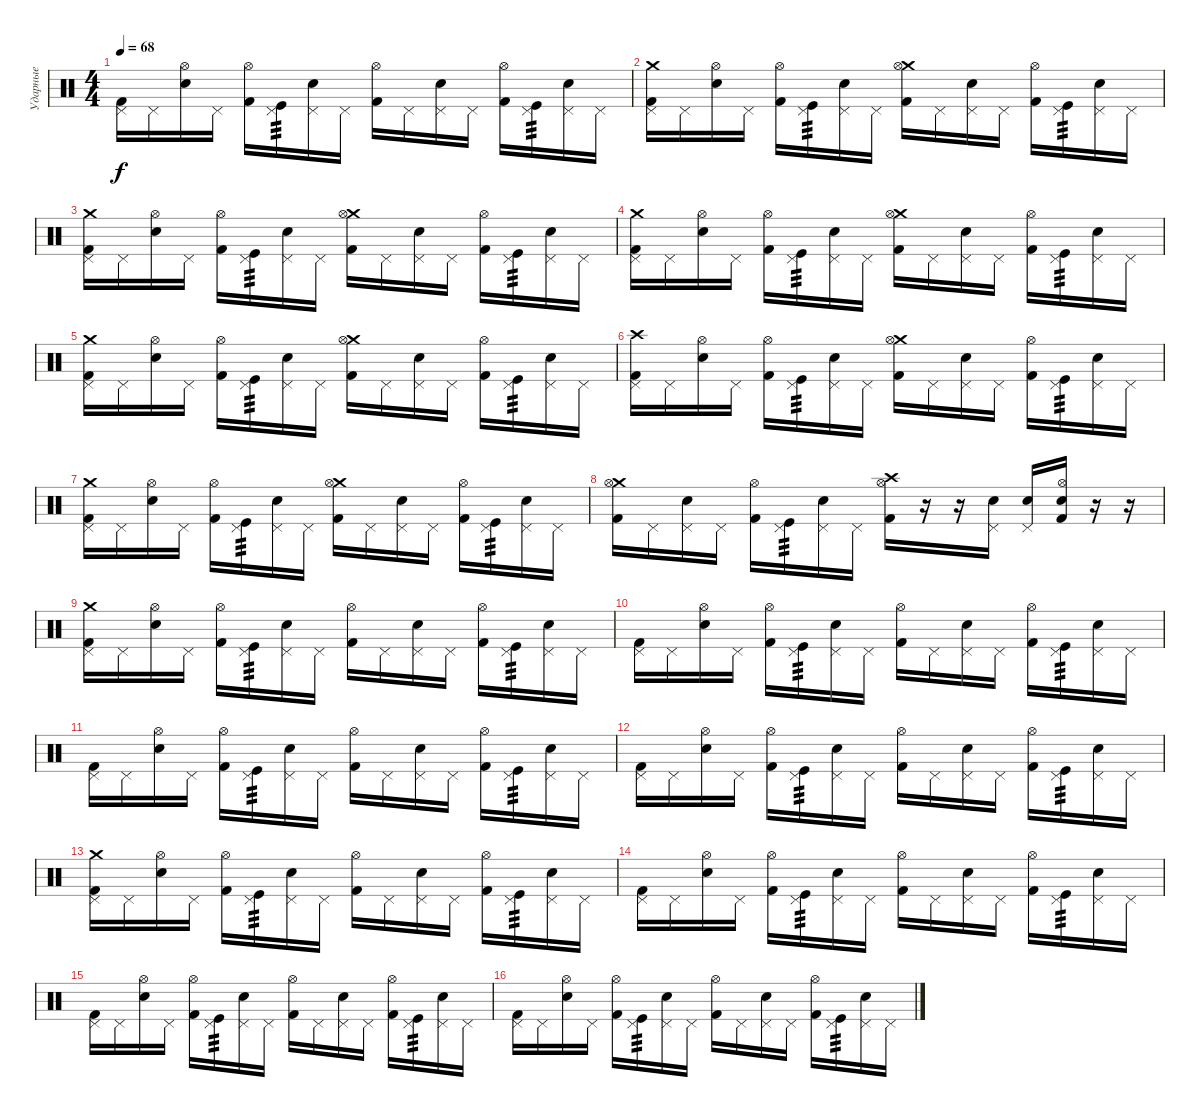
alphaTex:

\track ("Ударные" "Ударные") {instrument percussion}
\staff {score}
\articulation defaults
\ts (4 4)
\tempo 68
\clef neutral
\ks c
("Pedal Hi-Hat (hit)" "Kick (hit) 2").16{dy f} "Pedal Hi-Hat (hit)".16 ("Hi-Hat (open)" "Snare (hit) 2").16 "Pedal Hi-Hat (hit)".16 ("Hi-Hat (open)" "Kick (hit) 2").16 ("Pedal Hi-Hat (hit)" "Kick (hit)").16{tp 3} ("Pedal Hi-Hat (hit)" "Snare (hit) 2").16 "Pedal Hi-Hat (hit)".16 ("Hi-Hat (open)" "Kick (hit) 2").16 "Pedal Hi-Hat (hit)".16 ("Pedal Hi-Hat (hit)" "Snare (hit) 2").16 "Pedal Hi-Hat (hit)".16 ("Hi-Hat (open)" "Kick (hit) 2").16 ("Pedal Hi-Hat (hit)" "Kick (hit)").16{tp 3} ("Pedal Hi-Hat (hit)" "Snare (hit) 2").16 "Pedal Hi-Hat (hit)".16 |
("Crash medium (hit)" "Pedal Hi-Hat (hit)" "Kick (hit) 2").16 "Pedal Hi-Hat (hit)".16 ("Hi-Hat (open)" "Snare (hit) 2").16 "Pedal Hi-Hat (hit)".16 ("Hi-Hat (open)" "Kick (hit) 2").16 ("Pedal Hi-Hat (hit)" "Kick (hit)").16{tp 3} ("Pedal Hi-Hat (hit)" "Snare (hit) 2").16 "Pedal Hi-Hat (hit)".16 ("Crash medium (hit)" "Hi-Hat (open)" "Kick (hit) 2").16 "Pedal Hi-Hat (hit)".16 ("Pedal Hi-Hat (hit)" "Snare (hit) 2").16 "Pedal Hi-Hat (hit)".16 ("Hi-Hat (open)" "Kick (hit) 2").16 ("Pedal Hi-Hat (hit)" "Kick (hit)").16{tp 3} ("Pedal Hi-Hat (hit)" "Snare (hit) 2").16 "Pedal Hi-Hat (hit)".16 |
("Crash medium (hit)" "Pedal Hi-Hat (hit)" "Kick (hit) 2").16 "Pedal Hi-Hat (hit)".16 ("Hi-Hat (open)" "Snare (hit) 2").16 "Pedal Hi-Hat (hit)".16 ("Hi-Hat (open)" "Kick (hit) 2").16 ("Pedal Hi-Hat (hit)" "Kick (hit)").16{tp 3} ("Pedal Hi-Hat (hit)" "Snare (hit) 2").16 "Pedal Hi-Hat (hit)".16 ("Crash medium (hit)" "Hi-Hat (open)" "Kick (hit) 2").16 "Pedal Hi-Hat (hit)".16 ("Pedal Hi-Hat (hit)" "Snare (hit) 2").16 "Pedal Hi-Hat (hit)".16 ("Hi-Hat (open)" "Kick (hit) 2").16 ("Pedal Hi-Hat (hit)" "Kick (hit)").16{tp 3} ("Pedal Hi-Hat (hit)" "Snare (hit) 2").16 "Pedal Hi-Hat (hit)".16 |
("Crash medium (hit)" "Pedal Hi-Hat (hit)" "Kick (hit) 2").16 "Pedal Hi-Hat (hit)".16 ("Hi-Hat (open)" "Snare (hit) 2").16 "Pedal Hi-Hat (hit)".16 ("Hi-Hat (open)" "Kick (hit) 2").16 ("Pedal Hi-Hat (hit)" "Kick (hit)").16{tp 3} ("Pedal Hi-Hat (hit)" "Snare (hit) 2").16 "Pedal Hi-Hat (hit)".16 ("Crash medium (hit)" "Hi-Hat (open)" "Kick (hit) 2").16 "Pedal Hi-Hat (hit)".16 ("Pedal Hi-Hat (hit)" "Snare (hit) 2").16 "Pedal Hi-Hat (hit)".16 ("Hi-Hat (open)" "Kick (hit) 2").16 ("Pedal Hi-Hat (hit)" "Kick (hit)").16{tp 3} ("Pedal Hi-Hat (hit)" "Snare (hit) 2").16 "Pedal Hi-Hat (hit)".16 |
("Crash medium (hit)" "Pedal Hi-Hat (hit)" "Kick (hit) 2").16 "Pedal Hi-Hat (hit)".16 ("Hi-Hat (open)" "Snare (hit) 2").16 "Pedal Hi-Hat (hit)".16 ("Hi-Hat (open)" "Kick (hit) 2").16 ("Pedal Hi-Hat (hit)" "Kick (hit)").16{tp 3} ("Pedal Hi-Hat (hit)" "Snare (hit) 2").16 "Pedal Hi-Hat (hit)".16 ("Crash medium (hit)" "Hi-Hat (open)" "Kick (hit) 2").16 "Pedal Hi-Hat (hit)".16 ("Pedal Hi-Hat (hit)" "Snare (hit) 2").16 "Pedal Hi-Hat (hit)".16 ("Hi-Hat (open)" "Kick (hit) 2").16 ("Pedal Hi-Hat (hit)" "Kick (hit)").16{tp 3} ("Pedal Hi-Hat (hit)" "Snare (hit) 2").16 "Pedal Hi-Hat (hit)".16 |
("Crash high (hit)" "Pedal Hi-Hat (hit)" "Kick (hit) 2").16 "Pedal Hi-Hat (hit)".16 ("Hi-Hat (open)" "Snare (hit) 2").16 "Pedal Hi-Hat (hit)".16 ("Hi-Hat (open)" "Kick (hit) 2").16 ("Pedal Hi-Hat (hit)" "Kick (hit)").16{tp 3} ("Pedal Hi-Hat (hit)" "Snare (hit) 2").16 "Pedal Hi-Hat (hit)".16 ("Crash medium (hit)" "Hi-Hat (open)" "Kick (hit) 2").16 "Pedal Hi-Hat (hit)".16 ("Pedal Hi-Hat (hit)" "Snare (hit) 2").16 "Pedal Hi-Hat (hit)".16 ("Hi-Hat (open)" "Kick (hit) 2").16 ("Pedal Hi-Hat (hit)" "Kick (hit)").16{tp 3} ("Pedal Hi-Hat (hit)" "Snare (hit) 2").16 "Pedal Hi-Hat (hit)".16 |
("Crash medium (hit)" "Pedal Hi-Hat (hit)" "Kick (hit) 2").16 "Pedal Hi-Hat (hit)".16 ("Hi-Hat (open)" "Snare (hit) 2").16 "Pedal Hi-Hat (hit)".16 ("Hi-Hat (open)" "Kick (hit) 2").16 ("Pedal Hi-Hat (hit)" "Kick (hit)").16{tp 3} ("Pedal Hi-Hat (hit)" "Snare (hit) 2").16 "Pedal Hi-Hat (hit)".16 ("Crash medium (hit)" "Hi-Hat (open)" "Kick (hit) 2").16 "Pedal Hi-Hat (hit)".16 ("Pedal Hi-Hat (hit)" "Snare (hit) 2").16 "Pedal Hi-Hat (hit)".16 ("Hi-Hat (open)" "Kick (hit) 2").16 ("Pedal Hi-Hat (hit)" "Kick (hit)").16{tp 3} ("Pedal Hi-Hat (hit)" "Snare (hit) 2").16 "Pedal Hi-Hat (hit)".16 |
("Crash medium (hit)" "Hi-Hat (open)" "Kick (hit) 2").16 "Pedal Hi-Hat (hit)".16 ("Pedal Hi-Hat (hit)" "Snare (hit) 2").16 "Pedal Hi-Hat (hit)".16 ("Hi-Hat (open)" "Kick (hit) 2").16 ("Pedal Hi-Hat (hit)" "Kick (hit)").16{tp 3} ("Pedal Hi-Hat (hit)" "Snare (hit) 2").16 "Pedal Hi-Hat (hit)".16 ("Crash high (hit)" "Hi-Hat (open)" "Kick (hit) 2").16 r.16 r.16 ("Pedal Hi-Hat (hit)" "Snare (hit) 2").16 ("Pedal Hi-Hat (hit)" "Snare (hit) 2").16 ("Hi-Hat (open)" "Snare (hit) 2" "Kick (hit) 2").16 r.16 r.16 |
("Crash medium (hit)" "Pedal Hi-Hat (hit)" "Kick (hit) 2").16 "Pedal Hi-Hat (hit)".16 ("Hi-Hat (open)" "Snare (hit) 2").16 "Pedal Hi-Hat (hit)".16 ("Hi-Hat (open)" "Kick (hit) 2").16 ("Pedal Hi-Hat (hit)" "Kick (hit)").16{tp 3} ("Pedal Hi-Hat (hit)" "Snare (hit) 2").16 "Pedal Hi-Hat (hit)".16 ("Hi-Hat (open)" "Kick (hit) 2").16 "Pedal Hi-Hat (hit)".16 ("Pedal Hi-Hat (hit)" "Snare (hit) 2").16 "Pedal Hi-Hat (hit)".16 ("Hi-Hat (open)" "Kick (hit) 2").16 ("Pedal Hi-Hat (hit)" "Kick (hit)").16{tp 3} ("Pedal Hi-Hat (hit)" "Snare (hit) 2").16 "Pedal Hi-Hat (hit)".16 |
("Pedal Hi-Hat (hit)" "Kick (hit) 2").16 "Pedal Hi-Hat (hit)".16 ("Hi-Hat (open)" "Snare (hit) 2").16 "Pedal Hi-Hat (hit)".16 ("Hi-Hat (open)" "Kick (hit) 2").16 ("Pedal Hi-Hat (hit)" "Kick (hit)").16{tp 3} ("Pedal Hi-Hat (hit)" "Snare (hit) 2").16 "Pedal Hi-Hat (hit)".16 ("Hi-Hat (open)" "Kick (hit) 2").16 "Pedal Hi-Hat (hit)".16 ("Pedal Hi-Hat (hit)" "Snare (hit) 2").16 "Pedal Hi-Hat (hit)".16 ("Hi-Hat (open)" "Kick (hit) 2").16 ("Pedal Hi-Hat (hit)" "Kick (hit)").16{tp 3} ("Pedal Hi-Hat (hit)" "Snare (hit) 2").16 "Pedal Hi-Hat (hit)".16 |
("Pedal Hi-Hat (hit)" "Kick (hit) 2").16 "Pedal Hi-Hat (hit)".16 ("Hi-Hat (open)" "Snare (hit) 2").16 "Pedal Hi-Hat (hit)".16 ("Hi-Hat (open)" "Kick (hit) 2").16 ("Pedal Hi-Hat (hit)" "Kick (hit)").16{tp 3} ("Pedal Hi-Hat (hit)" "Snare (hit) 2").16 "Pedal Hi-Hat (hit)".16 ("Hi-Hat (open)" "Kick (hit) 2").16 "Pedal Hi-Hat (hit)".16 ("Pedal Hi-Hat (hit)" "Snare (hit) 2").16 "Pedal Hi-Hat (hit)".16 ("Hi-Hat (open)" "Kick (hit) 2").16 ("Pedal Hi-Hat (hit)" "Kick (hit)").16{tp 3} ("Pedal Hi-Hat (hit)" "Snare (hit) 2").16 "Pedal Hi-Hat (hit)".16 |
("Pedal Hi-Hat (hit)" "Kick (hit) 2").16 "Pedal Hi-Hat (hit)".16 ("Hi-Hat (open)" "Snare (hit) 2").16 "Pedal Hi-Hat (hit)".16 ("Hi-Hat (open)" "Kick (hit) 2").16 ("Pedal Hi-Hat (hit)" "Kick (hit)").16{tp 3} ("Pedal Hi-Hat (hit)" "Snare (hit) 2").16 "Pedal Hi-Hat (hit)".16 ("Hi-Hat (open)" "Kick (hit) 2").16 "Pedal Hi-Hat (hit)".16 ("Pedal Hi-Hat (hit)" "Snare (hit) 2").16 "Pedal Hi-Hat (hit)".16 ("Hi-Hat (open)" "Kick (hit) 2").16 ("Pedal Hi-Hat (hit)" "Kick (hit)").16{tp 3} ("Pedal Hi-Hat (hit)" "Snare (hit) 2").16 "Pedal Hi-Hat (hit)".16 |
("Crash medium (hit)" "Pedal Hi-Hat (hit)" "Kick (hit) 2").16 "Pedal Hi-Hat (hit)".16 ("Hi-Hat (open)" "Snare (hit) 2").16 "Pedal Hi-Hat (hit)".16 ("Hi-Hat (open)" "Kick (hit) 2").16 ("Pedal Hi-Hat (hit)" "Kick (hit)").16{tp 3} ("Pedal Hi-Hat (hit)" "Snare (hit) 2").16 "Pedal Hi-Hat (hit)".16 ("Hi-Hat (open)" "Kick (hit) 2").16 "Pedal Hi-Hat (hit)".16 ("Pedal Hi-Hat (hit)" "Snare (hit) 2").16 "Pedal Hi-Hat (hit)".16 ("Hi-Hat (open)" "Kick (hit) 2").16 ("Pedal Hi-Hat (hit)" "Kick (hit)").16{tp 3} ("Pedal Hi-Hat (hit)" "Snare (hit) 2").16 "Pedal Hi-Hat (hit)".16 |
("Pedal Hi-Hat (hit)" "Kick (hit) 2").16 "Pedal Hi-Hat (hit)".16 ("Hi-Hat (open)" "Snare (hit) 2").16 "Pedal Hi-Hat (hit)".16 ("Hi-Hat (open)" "Kick (hit) 2").16 ("Pedal Hi-Hat (hit)" "Kick (hit)").16{tp 3} ("Pedal Hi-Hat (hit)" "Snare (hit) 2").16 "Pedal Hi-Hat (hit)".16 ("Hi-Hat (open)" "Kick (hit) 2").16 "Pedal Hi-Hat (hit)".16 ("Pedal Hi-Hat (hit)" "Snare (hit) 2").16 "Pedal Hi-Hat (hit)".16 ("Hi-Hat (open)" "Kick (hit) 2").16 ("Pedal Hi-Hat (hit)" "Kick (hit)").16{tp 3} ("Pedal Hi-Hat (hit)" "Snare (hit) 2").16 "Pedal Hi-Hat (hit)".16 |
("Pedal Hi-Hat (hit)" "Kick (hit) 2").16 "Pedal Hi-Hat (hit)".16 ("Hi-Hat (open)" "Snare (hit) 2").16 "Pedal Hi-Hat (hit)".16 ("Hi-Hat (open)" "Kick (hit) 2").16 ("Pedal Hi-Hat (hit)" "Kick (hit)").16{tp 3} ("Pedal Hi-Hat (hit)" "Snare (hit) 2").16 "Pedal Hi-Hat (hit)".16 ("Hi-Hat (open)" "Kick (hit) 2").16 "Pedal Hi-Hat (hit)".16 ("Pedal Hi-Hat (hit)" "Snare (hit) 2").16 "Pedal Hi-Hat (hit)".16 ("Hi-Hat (open)" "Kick (hit) 2").16 ("Pedal Hi-Hat (hit)" "Kick (hit)").16{tp 3} ("Pedal Hi-Hat (hit)" "Snare (hit) 2").16 "Pedal Hi-Hat (hit)".16 |
("Pedal Hi-Hat (hit)" "Kick (hit) 2").16 "Pedal Hi-Hat (hit)".16 ("Hi-Hat (open)" "Snare (hit) 2").16 "Pedal Hi-Hat (hit)".16 ("Hi-Hat (open)" "Kick (hit) 2").16 ("Pedal Hi-Hat (hit)" "Kick (hit)").16{tp 3} ("Pedal Hi-Hat (hit)" "Snare (hit) 2").16 "Pedal Hi-Hat (hit)".16 ("Hi-Hat (open)" "Kick (hit) 2").16 "Pedal Hi-Hat (hit)".16 ("Pedal Hi-Hat (hit)" "Snare (hit) 2").16 "Pedal Hi-Hat (hit)".16 ("Hi-Hat (open)" "Kick (hit) 2").16 ("Pedal Hi-Hat (hit)" "Kick (hit)").16{tp 3} ("Pedal Hi-Hat (hit)" "Snare (hit) 2").16 "Pedal Hi-Hat (hit)".16
